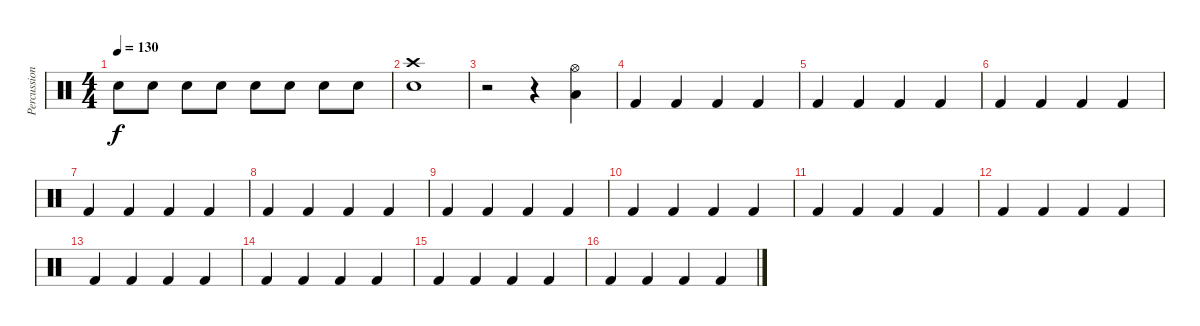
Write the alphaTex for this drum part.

\track ("Percussions" "Percussion") {instrument percussion}
\staff {score}
\articulation defaults
\ts (4 4)
\tempo 130
\clef neutral
\ks c "Snare (hit) 2".8{dy f} "Snare (hit) 2".8 "Snare (hit) 2".8 "Snare (hit) 2".8 "Snare (hit) 2".8 "Snare (hit) 2".8 "Snare (hit) 2".8 "Snare (hit) 2".8
|
("Crash high (hit)" "Snare (hit) 2").1 |
r.2 r.4 ("Hi-Hat (open)" "Low Tom (hit)").4 |
"Kick (hit) 2".4 "Kick (hit) 2".4 "Kick (hit) 2".4 "Kick (hit) 2".4 |
"Kick (hit) 2".4 "Kick (hit) 2".4 "Kick (hit) 2".4 "Kick (hit) 2".4 |
"Kick (hit) 2".4 "Kick (hit) 2".4 "Kick (hit) 2".4 "Kick (hit) 2".4 |
"Kick (hit) 2".4 "Kick (hit) 2".4 "Kick (hit) 2".4 "Kick (hit) 2".4 |
"Kick (hit) 2".4 "Kick (hit) 2".4 "Kick (hit) 2".4 "Kick (hit) 2".4 |
"Kick (hit) 2".4 "Kick (hit) 2".4 "Kick (hit) 2".4 "Kick (hit) 2".4 |
"Kick (hit) 2".4 "Kick (hit) 2".4 "Kick (hit) 2".4 "Kick (hit) 2".4 |
"Kick (hit) 2".4 "Kick (hit) 2".4 "Kick (hit) 2".4 "Kick (hit) 2".4 |
"Kick (hit) 2".4 "Kick (hit) 2".4 "Kick (hit) 2".4 "Kick (hit) 2".4 |
"Kick (hit) 2".4 "Kick (hit) 2".4 "Kick (hit) 2".4 "Kick (hit) 2".4 |
"Kick (hit) 2".4 "Kick (hit) 2".4 "Kick (hit) 2".4 "Kick (hit) 2".4 |
"Kick (hit) 2".4 "Kick (hit) 2".4 "Kick (hit) 2".4 "Kick (hit) 2".4 |
"Kick (hit) 2".4 "Kick (hit) 2".4 "Kick (hit) 2".4 "Kick (hit) 2".4
